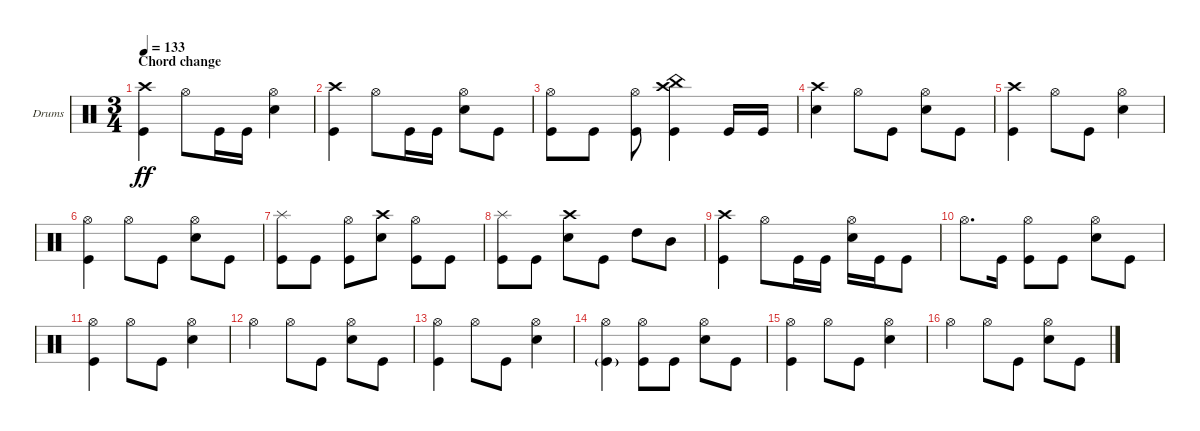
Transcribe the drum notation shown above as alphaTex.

\bracketExtendMode groupsimilarinstruments
\firstSystemTrackNameOrientation horizontal
\otherSystemsTrackNameOrientation horizontal
\track ("Drumkit" "Drums") {instrument percussion}
\staff {score}
\articulation defaults
\ts (3 4)
\section ("" "Chord change")
\tempo 133
\clef neutral
\ks c
("Kick (hit)" "Crash high (hit)").4{dy ff} "Hi-Hat (open)".8 "Kick (hit)".16 "Kick (hit)".16 ("Snare (hit) 2" "Hi-Hat (open)").4 |
("Kick (hit)" "Crash high (hit)").4 "Hi-Hat (open)".8 "Kick (hit)".16 "Kick (hit)".16 ("Snare (hit) 2" "Hi-Hat (open)").8 "Kick (hit)".8 |
("Kick (hit)" "Hi-Hat (open)").8 "Kick (hit)".8 ("Kick (hit)" "Hi-Hat (open)").8 ("Kick (hit)" "Crash high (hit)" "China (hit)").4 "Kick (hit)".16 "Kick (hit)".16 |
("Snare (hit) 2" "Crash high (hit)").4 "Hi-Hat (open)".8 "Kick (hit)".8 ("Hi-Hat (open)" "Snare (hit) 2").8 "Kick (hit)".8 |
("Crash high (hit)" "Kick (hit)").4 "Hi-Hat (open)".8 "Kick (hit)".8 ("Hi-Hat (open)" "Snare (hit) 2").4 |
("Hi-Hat (open)" "Kick (hit)").4 "Hi-Hat (open)".8 "Kick (hit)".8 ("Hi-Hat (open)" "Snare (hit) 2").8 "Kick (hit)".8 |
("Kick (hit)" "Splash (hit)").8 "Kick (hit)".8 ("Kick (hit)" "Hi-Hat (open)").8 ("Snare (hit) 2" "Crash high (hit)").8 ("Kick (hit)" "Hi-Hat (open)").8 "Kick (hit)".8 |
("Kick (hit)" "Splash (hit)").8 "Kick (hit)".8 ("Snare (hit) 2" "Crash high (hit)").8 "Kick (hit)".8 "High Tom (hit)".8 "Mid Tom (hit)".8 |
("Kick (hit)" "Crash high (hit)").4 "Hi-Hat (open)".8 "Kick (hit)".16 "Kick (hit)".16 ("Snare (hit) 2" "Hi-Hat (open)").16 "Kick (hit)".16 "Kick (hit)".8 |
"Hi-Hat (open)".8{d} "Kick (hit)".16 ("Kick (hit)" "Hi-Hat (open)").8 "Kick (hit)".8 ("Snare (hit) 2" "Hi-Hat (open)").8 "Kick (hit)".8 |
("Kick (hit)" "Hi-Hat (open)").4 "Hi-Hat (open)".8 "Kick (hit)".8 ("Snare (hit) 2" "Hi-Hat (open)").4 |
"Hi-Hat (open)".4 "Hi-Hat (open)".8 "Kick (hit)".8 ("Snare (hit) 2" "Hi-Hat (open)").8 "Kick (hit)".8 |
("Kick (hit)" "Hi-Hat (open)").4 "Hi-Hat (open)".8 "Kick (hit)".8 ("Snare (hit) 2" "Hi-Hat (open)").4 |
("Hi-Hat (open)" "Kick (hit)"{g}).4 ("Hi-Hat (open)" "Kick (hit)").8 "Kick (hit)".8 ("Snare (hit) 2" "Hi-Hat (open)").8 "Kick (hit)".8 |
("Kick (hit)" "Hi-Hat (open)").4 "Hi-Hat (open)".8 "Kick (hit)".8 ("Snare (hit) 2" "Hi-Hat (open)").4 |
"Hi-Hat (open)".4 "Hi-Hat (open)".8 "Kick (hit)".8 ("Snare (hit) 2" "Hi-Hat (open)").8 "Kick (hit)".8
